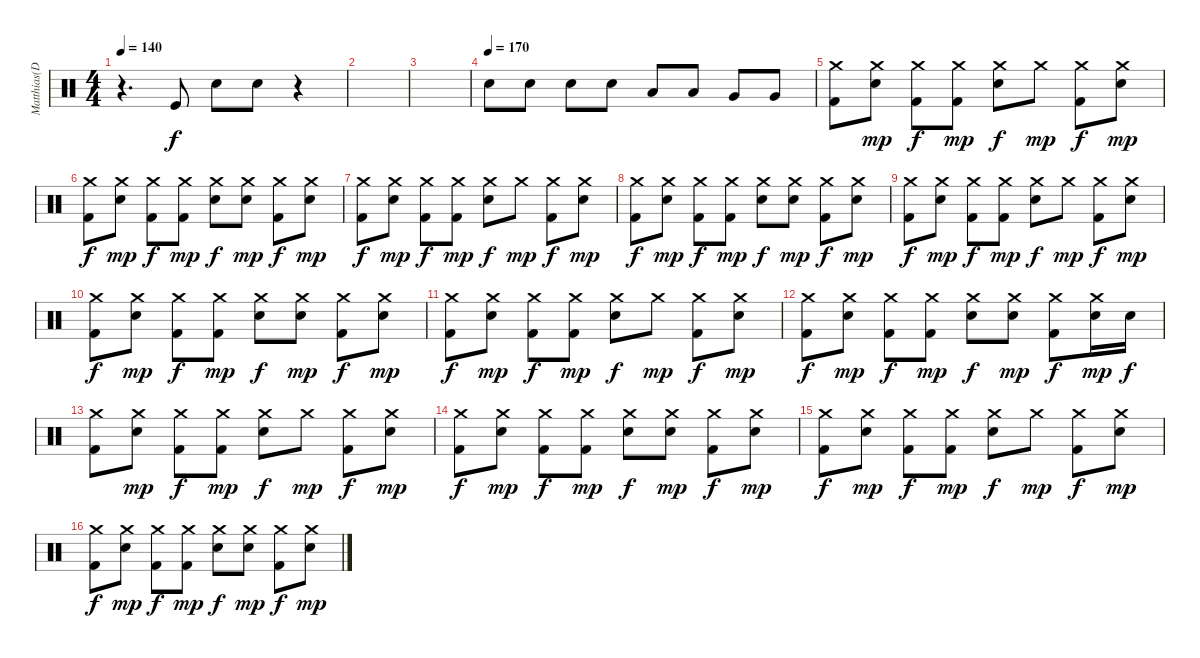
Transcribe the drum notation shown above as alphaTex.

\track ("Matthias(Drums)" "Matthias(D") {instrument percussion}
\staff {score}
\articulation defaults
\ts (4 4)
\tempo 140
\clef neutral
\ks c
r.4{d dy f} "Kick (hit)".8 "Electric Snare (hit)".8 "Electric Snare (hit)".8 r.4 |
|
|
\tempo (170)
"Snare (hit) 2".8{volume 16 balance 8} "Snare (hit) 2".8 "Snare (hit) 2".8 "Snare (hit) 2".8 "Low Tom (hit)".8 "Low Tom (hit)".8 "Very Low Tom (hit)".8 "Very Low Tom (hit)".8 |
("Crash medium (hit)" "Kick (hit) 2").8 ("Crash medium (hit)" "Snare (hit) 2").8{dy mp} ("Crash medium (hit)" "Kick (hit) 2").8{dy f} ("Crash medium (hit)" "Kick (hit) 2").8{dy mp} ("Crash medium (hit)" "Snare (hit) 2").8{dy f} "Crash medium (hit)".8{dy mp} ("Crash medium (hit)" "Kick (hit) 2").8{dy f} ("Crash medium (hit)" "Snare (hit) 2").8{dy mp} |
("Crash medium (hit)" "Kick (hit) 2").8{dy f} ("Crash medium (hit)" "Snare (hit) 2").8{dy mp} ("Crash medium (hit)" "Kick (hit) 2").8{dy f} ("Crash medium (hit)" "Kick (hit) 2").8{dy mp} ("Crash medium (hit)" "Snare (hit) 2").8{dy f} ("Crash medium (hit)" "Snare (hit) 2").8{dy mp} ("Crash medium (hit)" "Kick (hit) 2").8{dy f} ("Crash medium (hit)" "Snare (hit) 2").8{dy mp} |
("Crash medium (hit)" "Kick (hit) 2").8{dy f} ("Crash medium (hit)" "Snare (hit) 2").8{dy mp} ("Crash medium (hit)" "Kick (hit) 2").8{dy f} ("Crash medium (hit)" "Kick (hit) 2").8{dy mp} ("Crash medium (hit)" "Snare (hit) 2").8{dy f} "Crash medium (hit)".8{dy mp} ("Crash medium (hit)" "Kick (hit) 2").8{dy f} ("Crash medium (hit)" "Snare (hit) 2").8{dy mp} |
("Crash medium (hit)" "Kick (hit) 2").8{dy f} ("Crash medium (hit)" "Snare (hit) 2").8{dy mp} ("Crash medium (hit)" "Kick (hit) 2").8{dy f} ("Crash medium (hit)" "Kick (hit) 2").8{dy mp} ("Crash medium (hit)" "Snare (hit) 2").8{dy f} ("Crash medium (hit)" "Snare (hit) 2").8{dy mp} ("Crash medium (hit)" "Kick (hit) 2").8{dy f} ("Crash medium (hit)" "Snare (hit) 2").8{dy mp} |
("Crash medium (hit)" "Kick (hit) 2").8{dy f} ("Crash medium (hit)" "Snare (hit) 2").8{dy mp} ("Crash medium (hit)" "Kick (hit) 2").8{dy f} ("Crash medium (hit)" "Kick (hit) 2").8{dy mp} ("Crash medium (hit)" "Snare (hit) 2").8{dy f} "Crash medium (hit)".8{dy mp} ("Crash medium (hit)" "Kick (hit) 2").8{dy f} ("Crash medium (hit)" "Snare (hit) 2").8{dy mp} |
("Crash medium (hit)" "Kick (hit) 2").8{dy f} ("Crash medium (hit)" "Snare (hit) 2").8{dy mp} ("Crash medium (hit)" "Kick (hit) 2").8{dy f} ("Crash medium (hit)" "Kick (hit) 2").8{dy mp} ("Crash medium (hit)" "Snare (hit) 2").8{dy f} ("Crash medium (hit)" "Snare (hit) 2").8{dy mp} ("Crash medium (hit)" "Kick (hit) 2").8{dy f} ("Crash medium (hit)" "Snare (hit) 2").8{dy mp} |
("Crash medium (hit)" "Kick (hit) 2").8{dy f} ("Crash medium (hit)" "Snare (hit) 2").8{dy mp} ("Crash medium (hit)" "Kick (hit) 2").8{dy f} ("Crash medium (hit)" "Kick (hit) 2").8{dy mp} ("Crash medium (hit)" "Snare (hit) 2").8{dy f} "Crash medium (hit)".8{dy mp} ("Crash medium (hit)" "Kick (hit) 2").8{dy f} ("Crash medium (hit)" "Snare (hit) 2").8{dy mp} |
("Crash medium (hit)" "Kick (hit) 2").8{dy f} ("Crash medium (hit)" "Snare (hit) 2").8{dy mp} ("Crash medium (hit)" "Kick (hit) 2").8{dy f} ("Crash medium (hit)" "Kick (hit) 2").8{dy mp} ("Crash medium (hit)" "Snare (hit) 2").8{dy f} ("Crash medium (hit)" "Snare (hit) 2").8{dy mp} ("Crash medium (hit)" "Kick (hit) 2").8{dy f} ("Crash medium (hit)" "Snare (hit) 2").16{dy mp} "Snare (hit) 2".16{dy f} |
("Crash medium (hit)" "Kick (hit) 2").8 ("Crash medium (hit)" "Snare (hit) 2").8{dy mp} ("Crash medium (hit)" "Kick (hit) 2").8{dy f} ("Crash medium (hit)" "Kick (hit) 2").8{dy mp} ("Crash medium (hit)" "Snare (hit) 2").8{dy f} "Crash medium (hit)".8{dy mp} ("Crash medium (hit)" "Kick (hit) 2").8{dy f} ("Crash medium (hit)" "Snare (hit) 2").8{dy mp} |
("Crash medium (hit)" "Kick (hit) 2").8{dy f} ("Crash medium (hit)" "Snare (hit) 2").8{dy mp} ("Crash medium (hit)" "Kick (hit) 2").8{dy f} ("Crash medium (hit)" "Kick (hit) 2").8{dy mp} ("Crash medium (hit)" "Snare (hit) 2").8{dy f} ("Crash medium (hit)" "Snare (hit) 2").8{dy mp} ("Crash medium (hit)" "Kick (hit) 2").8{dy f} ("Crash medium (hit)" "Snare (hit) 2").8{dy mp} |
("Crash medium (hit)" "Kick (hit) 2").8{dy f} ("Crash medium (hit)" "Snare (hit) 2").8{dy mp} ("Crash medium (hit)" "Kick (hit) 2").8{dy f} ("Crash medium (hit)" "Kick (hit) 2").8{dy mp} ("Crash medium (hit)" "Snare (hit) 2").8{dy f} "Crash medium (hit)".8{dy mp} ("Crash medium (hit)" "Kick (hit) 2").8{dy f} ("Crash medium (hit)" "Snare (hit) 2").8{dy mp} |
("Crash medium (hit)" "Kick (hit) 2").8{dy f} ("Crash medium (hit)" "Snare (hit) 2").8{dy mp} ("Crash medium (hit)" "Kick (hit) 2").8{dy f} ("Crash medium (hit)" "Kick (hit) 2").8{dy mp} ("Crash medium (hit)" "Snare (hit) 2").8{dy f} ("Crash medium (hit)" "Snare (hit) 2").8{dy mp} ("Crash medium (hit)" "Kick (hit) 2").8{dy f} ("Crash medium (hit)" "Snare (hit) 2").8{dy mp}
